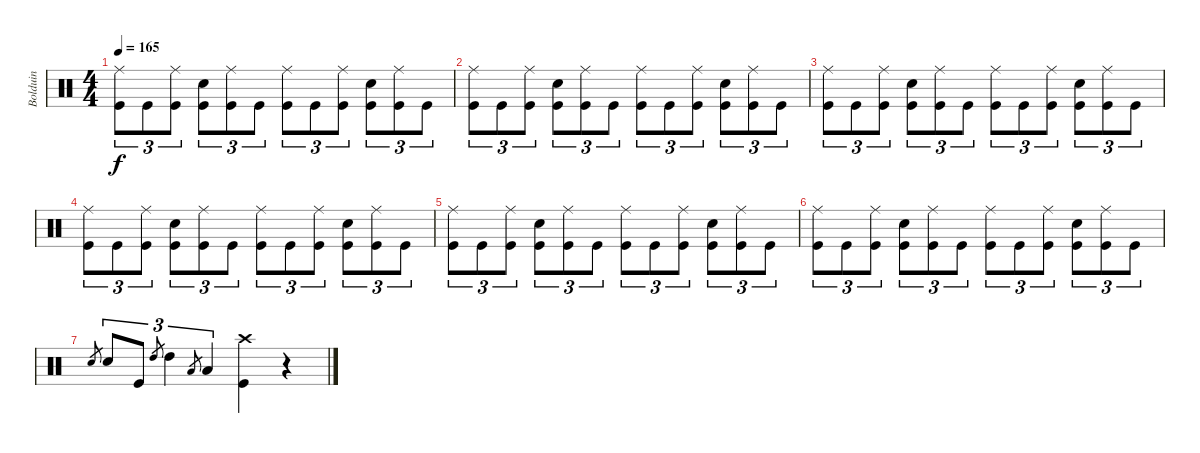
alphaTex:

\track ("Bolduin" "Bolduin") {instrument percussion}
\staff {score}
\articulation defaults
\ts (4 4)
\tempo 165
\clef neutral
\ks aminor
("Kick (hit)" "Ride (middle)").8{tu (3 2) dy f} "Kick (hit)".8{tu (3 2)} ("Kick (hit)" "Ride (middle)").8{tu (3 2)} ("Kick (hit)" "Snare (hit) 2").8{tu (3 2)} ("Kick (hit)" "Ride (middle)").8{tu (3 2)} "Kick (hit)".8{tu (3 2)} ("Kick (hit)" "Ride (middle)").8{tu (3 2)} "Kick (hit)".8{tu (3 2)} ("Kick (hit)" "Ride (middle)").8{tu (3 2)} ("Kick (hit)" "Snare (hit) 2").8{tu (3 2)} ("Kick (hit)" "Ride (middle)").8{tu (3 2)} "Kick (hit)".8{tu (3 2)} |
("Kick (hit)" "Ride (middle)").8{tu (3 2)} "Kick (hit)".8{tu (3 2)} ("Kick (hit)" "Ride (middle)").8{tu (3 2)} ("Kick (hit)" "Snare (hit) 2").8{tu (3 2)} ("Kick (hit)" "Ride (middle)").8{tu (3 2)} "Kick (hit)".8{tu (3 2)} ("Kick (hit)" "Ride (middle)").8{tu (3 2)} "Kick (hit)".8{tu (3 2)} ("Kick (hit)" "Ride (middle)").8{tu (3 2)} ("Kick (hit)" "Snare (hit) 2").8{tu (3 2)} ("Kick (hit)" "Ride (middle)").8{tu (3 2)} "Kick (hit)".8{tu (3 2)} |
("Kick (hit)" "Ride (middle)").8{tu (3 2)} "Kick (hit)".8{tu (3 2)} ("Kick (hit)" "Ride (middle)").8{tu (3 2)} ("Kick (hit)" "Snare (hit) 2").8{tu (3 2)} ("Kick (hit)" "Ride (middle)").8{tu (3 2)} "Kick (hit)".8{tu (3 2)} ("Kick (hit)" "Ride (middle)").8{tu (3 2)} "Kick (hit)".8{tu (3 2)} ("Kick (hit)" "Ride (middle)").8{tu (3 2)} ("Kick (hit)" "Snare (hit) 2").8{tu (3 2)} ("Kick (hit)" "Ride (middle)").8{tu (3 2)} "Kick (hit)".8{tu (3 2)} |
("Kick (hit)" "Ride (middle)").8{tu (3 2)} "Kick (hit)".8{tu (3 2)} ("Kick (hit)" "Ride (middle)").8{tu (3 2)} ("Kick (hit)" "Snare (hit) 2").8{tu (3 2)} ("Kick (hit)" "Ride (middle)").8{tu (3 2)} "Kick (hit)".8{tu (3 2)} ("Kick (hit)" "Ride (middle)").8{tu (3 2)} "Kick (hit)".8{tu (3 2)} ("Kick (hit)" "Ride (middle)").8{tu (3 2)} ("Kick (hit)" "Snare (hit) 2").8{tu (3 2)} ("Kick (hit)" "Ride (middle)").8{tu (3 2)} "Kick (hit)".8{tu (3 2)} |
("Kick (hit)" "Ride (middle)").8{tu (3 2)} "Kick (hit)".8{tu (3 2)} ("Kick (hit)" "Ride (middle)").8{tu (3 2)} ("Kick (hit)" "Snare (hit) 2").8{tu (3 2)} ("Kick (hit)" "Ride (middle)").8{tu (3 2)} "Kick (hit)".8{tu (3 2)} ("Kick (hit)" "Ride (middle)").8{tu (3 2)} "Kick (hit)".8{tu (3 2)} ("Kick (hit)" "Ride (middle)").8{tu (3 2)} ("Kick (hit)" "Snare (hit) 2").8{tu (3 2)} ("Kick (hit)" "Ride (middle)").8{tu (3 2)} "Kick (hit)".8{tu (3 2)} |
("Kick (hit)" "Ride (middle)").8{tu (3 2)} "Kick (hit)".8{tu (3 2)} ("Kick (hit)" "Ride (middle)").8{tu (3 2)} ("Kick (hit)" "Snare (hit) 2").8{tu (3 2)} ("Kick (hit)" "Ride (middle)").8{tu (3 2)} "Kick (hit)".8{tu (3 2)} ("Kick (hit)" "Ride (middle)").8{tu (3 2)} "Kick (hit)".8{tu (3 2)} ("Kick (hit)" "Ride (middle)").8{tu (3 2)} ("Kick (hit)" "Snare (hit) 2").8{tu (3 2)} ("Kick (hit)" "Ride (middle)").8{tu (3 2)} "Kick (hit)".8{tu (3 2)} |
"Snare (hit) 2".8{gr} "Snare (hit) 2".8{tu (3 2)} "Kick (hit)".8{tu (3 2)} "High Tom (hit)".8{gr} "High Tom (hit)".4{tu (3 2)} "Low Tom (hit)".8{gr} "Low Tom (hit)".4{tu (3 2)} ("Crash high (hit)" "Kick (hit)").4 r.4
